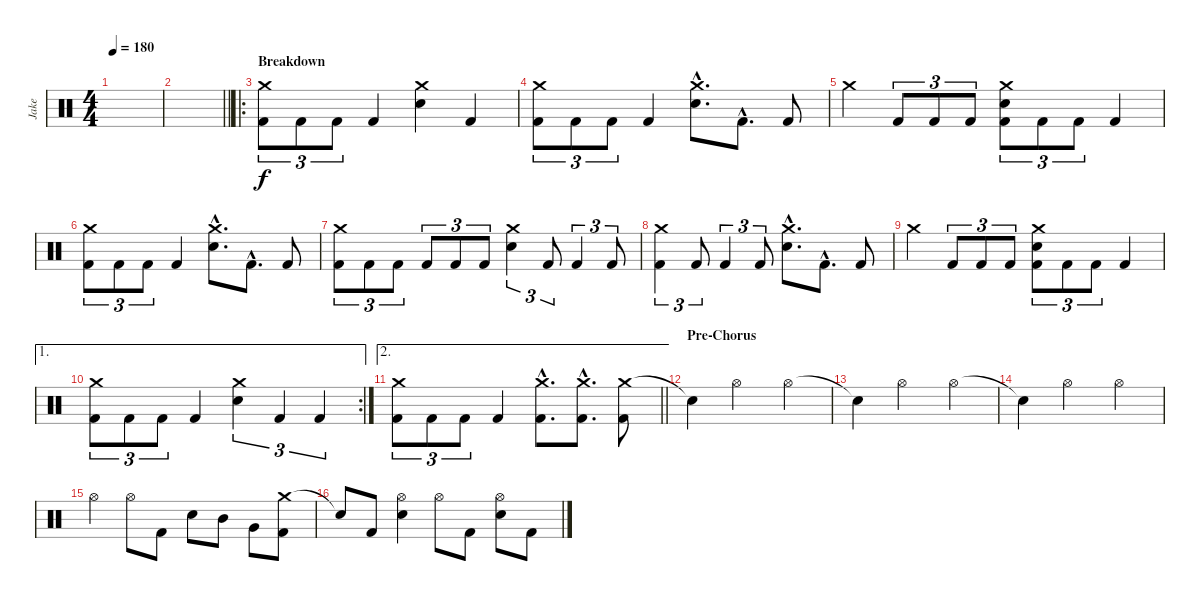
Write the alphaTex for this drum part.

\track ("Jake" "Jake") {instrument percussion}
\staff {score}
\articulation defaults
\ts (4 4)
\tempo 180
\clef neutral
\ks c
|
\barLineRight lightlight
|
\ro
\section ("" "Breakdown")
("Crash medium (hit)" "Kick (hit) 2").8{tu (3 2)} "Kick (hit) 2".8{tu (3 2)} "Kick (hit) 2".8{tu (3 2)} "Kick (hit) 2".4 ("Crash medium (hit)" "Electric Snare (hit)").4 "Kick (hit) 2".4 |
("Crash medium (hit)" "Kick (hit) 2").8{tu (3 2)} "Kick (hit) 2".8{tu (3 2)} "Kick (hit) 2".8{tu (3 2)} "Kick (hit) 2".4 ("Crash medium (hit)"{hac} "Electric Snare (hit)"{hac}).8{d} "Kick (hit) 2"{hac}.8{d} "Kick (hit) 2".8 |
"Crash medium (hit)".4 "Kick (hit) 2".8{tu (3 2)} "Kick (hit) 2".8{tu (3 2)} "Kick (hit) 2".8{tu (3 2)} ("Crash medium (hit)" "Electric Snare (hit)" "Kick (hit) 2").8{tu (3 2)} "Kick (hit) 2".8{tu (3 2)} "Kick (hit) 2".8{tu (3 2)} "Kick (hit) 2".4 |
("Crash medium (hit)" "Kick (hit) 2").8{tu (3 2)} "Kick (hit) 2".8{tu (3 2)} "Kick (hit) 2".8{tu (3 2)} "Kick (hit) 2".4 ("Crash medium (hit)"{hac} "Electric Snare (hit)"{hac}).8{d} "Kick (hit) 2"{hac}.8{d} "Kick (hit) 2".8 |
("Crash medium (hit)" "Kick (hit) 2").8{tu (3 2)} "Kick (hit) 2".8{tu (3 2)} "Kick (hit) 2".8{tu (3 2)} "Kick (hit) 2".8{tu (3 2)} "Kick (hit) 2".8{tu (3 2)} "Kick (hit) 2".8{tu (3 2)} ("Crash medium (hit)" "Electric Snare (hit)").4{tu (3 2)} "Kick (hit) 2".8{tu (3 2)} "Kick (hit) 2".4{tu (3 2)} "Kick (hit) 2".8{tu (3 2)} |
("Crash medium (hit)" "Kick (hit) 2").4{tu (3 2)} "Kick (hit) 2".8{tu (3 2)} "Kick (hit) 2".4{tu (3 2)} "Kick (hit) 2".8{tu (3 2)} ("Crash medium (hit)"{hac} "Electric Snare (hit)"{hac}).8{d} "Kick (hit) 2"{hac}.8{d} "Kick (hit) 2".8 |
"Crash medium (hit)".4 "Kick (hit) 2".8{tu (3 2)} "Kick (hit) 2".8{tu (3 2)} "Kick (hit) 2".8{tu (3 2)} ("Crash medium (hit)" "Electric Snare (hit)" "Kick (hit) 2").8{tu (3 2)} "Kick (hit) 2".8{tu (3 2)} "Kick (hit) 2".8{tu (3 2)} "Kick (hit) 2".4 |
\ae 1
\rc 2
("Crash medium (hit)" "Kick (hit) 2").8{tu (3 2)} "Kick (hit) 2".8{tu (3 2)} "Kick (hit) 2".8{tu (3 2)} "Kick (hit) 2".4 ("Crash medium (hit)" "Electric Snare (hit)").4{tu (3 2)} "Kick (hit) 2".4{tu (3 2)} "Kick (hit) 2".4{tu (3 2)} |
\ae 2
\barLineRight lightlight
("Crash medium (hit)" "Kick (hit) 2").8{tu (3 2)} "Kick (hit) 2".8{tu (3 2)} "Kick (hit) 2".8{tu (3 2)} "Kick (hit) 2".4 ("Crash medium (hit)"{hac} "Kick (hit) 2"{hac}).8{d} ("Crash medium (hit)"{hac} "Kick (hit) 2"{hac}).8{d} ("Crash medium (hit)" "Kick (hit) 2").8 |
\section ("" "Pre-Chorus")
"Snare (hit)"{t}.4 "Hi-Hat (open)".2 "Hi-Hat (open)".4 |
"Snare (hit)"{t}.4 "Hi-Hat (open)".2 "Hi-Hat (open)".4 |
"Snare (hit)"{t}.4 "Hi-Hat (open)".2 "Hi-Hat (open)".4 |
"Hi-Hat (open)".4 "Hi-Hat (open)".8 "Kick (hit) 2".8 "Electric Snare (hit)".8 "Mid Tom (hit)".8 "Very Low Tom (hit)".8 ("Crash medium (hit)" "Kick (hit) 2").8 |
"Snare (hit)"{t}.8 "Kick (hit) 2".8 ("Hi-Hat (open)" "Electric Snare (hit)").4 "Hi-Hat (open)".8 "Kick (hit) 2".8 ("Hi-Hat (open)" "Electric Snare (hit)").8 "Kick (hit) 2".8
